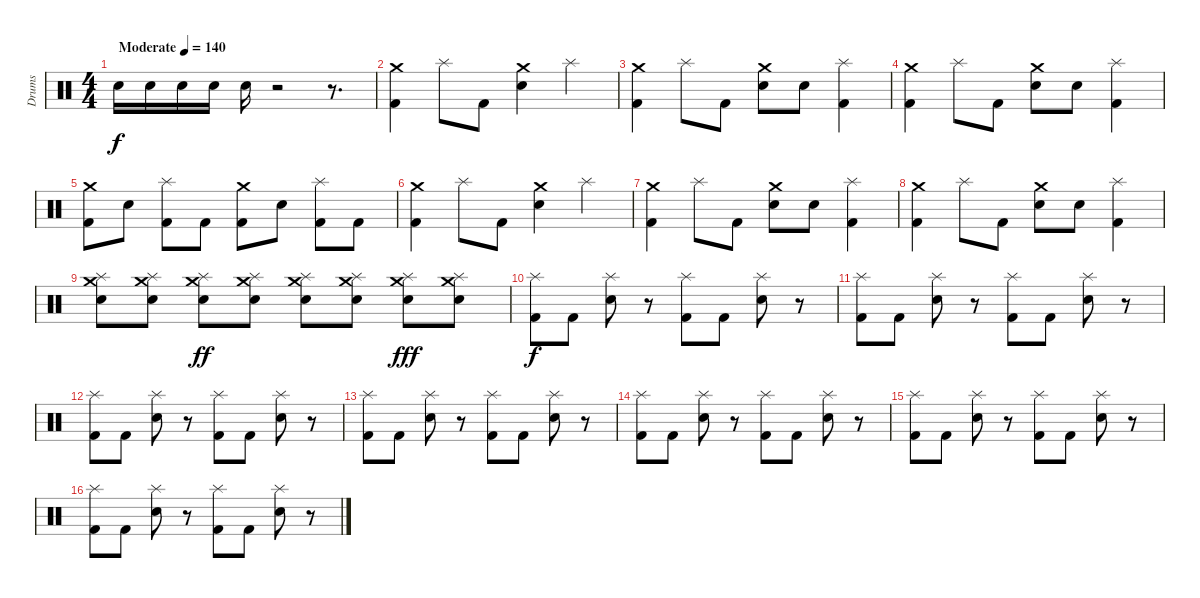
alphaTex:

\track ("Drums" "Drums") {instrument percussion}
\staff {score}
\articulation defaults
\ts (4 4)
\tempo (140 "Moderate")
\clef neutral
\ks c "Snare (hit) 2".16{dy f} "Snare (hit) 2".16 "Snare (hit) 2".16 "Snare (hit) 2".16 "Snare (hit) 2".16
r.2 r.8{d} |
("Crash medium (hit)" "Kick (hit) 2").4 "Splash (hit)".8 "Kick (hit) 2".8 ("Crash medium (hit)" "Snare (hit) 2").4 "Splash (hit)".4 |
("Crash medium (hit)" "Kick (hit) 2").4 "Splash (hit)".8 "Kick (hit) 2".8 ("Crash medium (hit)" "Snare (hit) 2").8 "Snare (hit) 2".8 ("Splash (hit)" "Kick (hit) 2").4 |
("Crash medium (hit)" "Kick (hit) 2").4 "Splash (hit)".8 "Kick (hit) 2".8 ("Crash medium (hit)" "Snare (hit) 2").8 "Snare (hit) 2".8 ("Splash (hit)" "Kick (hit) 2").4 |
("Crash medium (hit)" "Kick (hit) 2").8 "Snare (hit) 2".8 ("Splash (hit)" "Kick (hit) 2").8 "Kick (hit) 2".8 ("Crash medium (hit)" "Kick (hit) 2").8 "Snare (hit) 2".8 ("Splash (hit)" "Kick (hit) 2").8 "Kick (hit) 2".8 |
("Crash medium (hit)" "Kick (hit) 2").4 "Splash (hit)".8 "Kick (hit) 2".8 ("Crash medium (hit)" "Snare (hit) 2").4 "Splash (hit)".4 |
("Crash medium (hit)" "Kick (hit) 2").4 "Splash (hit)".8 "Kick (hit) 2".8 ("Crash medium (hit)" "Snare (hit) 2").8 "Snare (hit) 2".8 ("Splash (hit)" "Kick (hit) 2").4 |
("Crash medium (hit)" "Kick (hit) 2").4 "Splash (hit)".8 "Kick (hit) 2".8 ("Crash medium (hit)" "Snare (hit) 2").8 "Snare (hit) 2".8 ("Splash (hit)" "Kick (hit) 2").4 |
("Snare (hit) 2" "Splash (hit)" "Crash medium (hit)").8 ("Snare (hit) 2" "Splash (hit)" "Crash medium (hit)").8 ("Snare (hit) 2" "Splash (hit)" "Crash medium (hit)").8{dy ff} ("Snare (hit) 2" "Splash (hit)" "Crash medium (hit)").8 ("Snare (hit) 2" "Splash (hit)" "Crash medium (hit)").8 ("Snare (hit) 2" "Splash (hit)" "Crash medium (hit)").8 ("Snare (hit) 2" "Splash (hit)" "Crash medium (hit)").8{dy fff} ("Snare (hit) 2" "Splash (hit)" "Crash medium (hit)").8 |
("Splash (hit)" "Kick (hit) 2").8{dy f} "Kick (hit) 2".8 ("Splash (hit)" "Snare (hit) 2").8 r.8 ("Splash (hit)" "Kick (hit) 2").8 "Kick (hit) 2".8 ("Splash (hit)" "Snare (hit) 2").8 r.8 |
("Splash (hit)" "Kick (hit) 2").8 "Kick (hit) 2".8 ("Splash (hit)" "Snare (hit) 2").8 r.8 ("Splash (hit)" "Kick (hit) 2").8 "Kick (hit) 2".8 ("Splash (hit)" "Snare (hit) 2").8 r.8 |
("Splash (hit)" "Kick (hit) 2").8 "Kick (hit) 2".8 ("Splash (hit)" "Snare (hit) 2").8 r.8 ("Splash (hit)" "Kick (hit) 2").8 "Kick (hit) 2".8 ("Splash (hit)" "Snare (hit) 2").8 r.8 |
("Splash (hit)" "Kick (hit) 2").8 "Kick (hit) 2".8 ("Splash (hit)" "Snare (hit) 2").8 r.8 ("Splash (hit)" "Kick (hit) 2").8 "Kick (hit) 2".8 ("Splash (hit)" "Snare (hit) 2").8 r.8 |
("Splash (hit)" "Kick (hit) 2").8 "Kick (hit) 2".8 ("Splash (hit)" "Snare (hit) 2").8 r.8 ("Splash (hit)" "Kick (hit) 2").8 "Kick (hit) 2".8 ("Splash (hit)" "Snare (hit) 2").8 r.8 |
("Splash (hit)" "Kick (hit) 2").8 "Kick (hit) 2".8 ("Splash (hit)" "Snare (hit) 2").8 r.8 ("Splash (hit)" "Kick (hit) 2").8 "Kick (hit) 2".8 ("Splash (hit)" "Snare (hit) 2").8 r.8 |
("Splash (hit)" "Kick (hit) 2").8 "Kick (hit) 2".8 ("Splash (hit)" "Snare (hit) 2").8 r.8 ("Splash (hit)" "Kick (hit) 2").8 "Kick (hit) 2".8 ("Splash (hit)" "Snare (hit) 2").8 r.8
